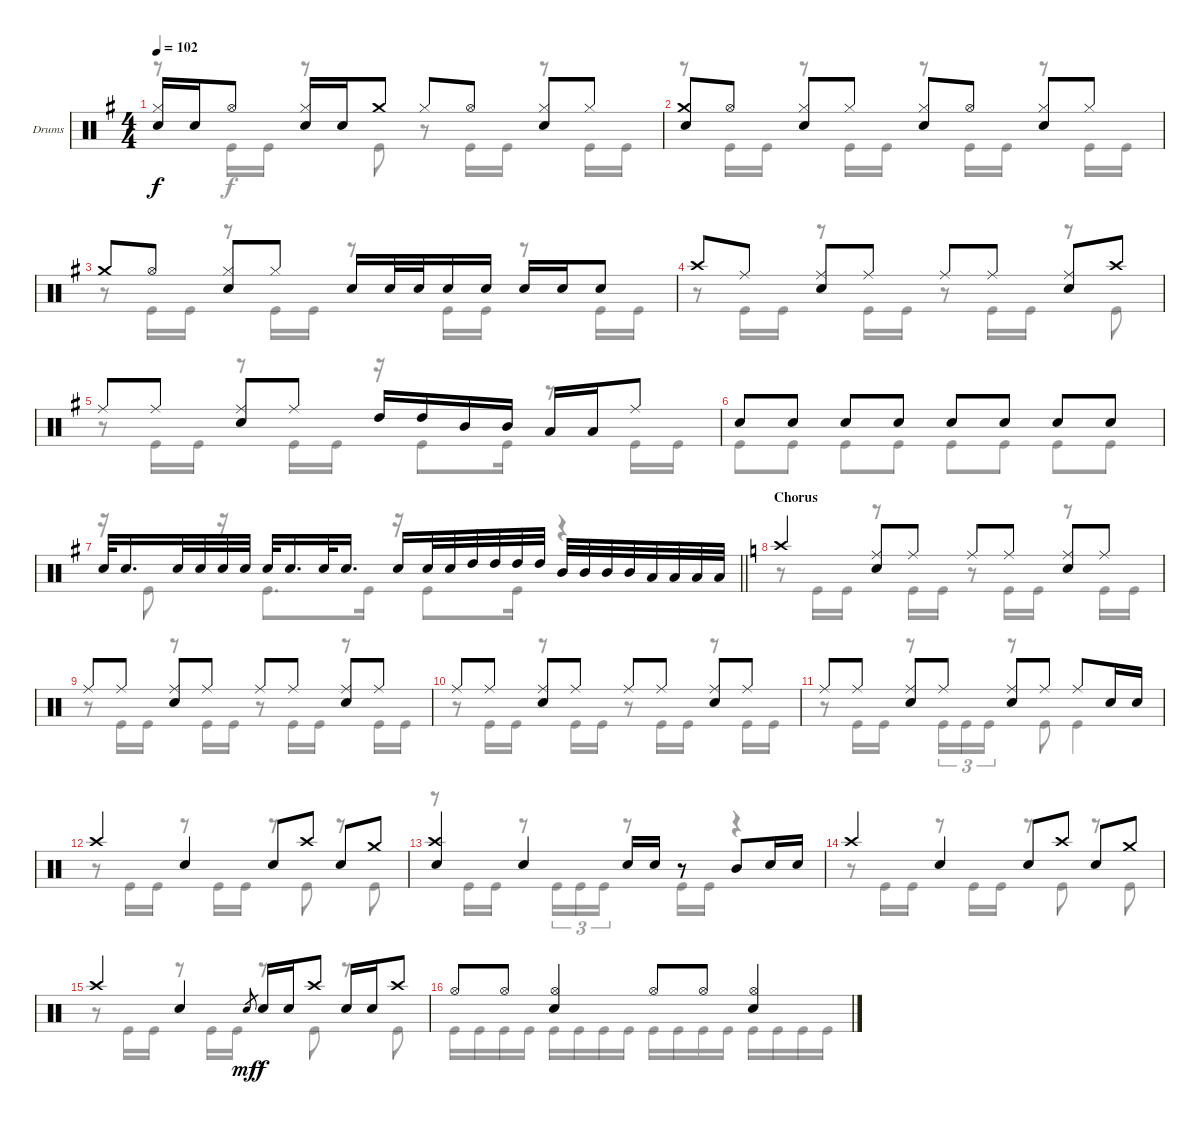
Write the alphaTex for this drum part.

\bracketExtendMode groupsimilarinstruments
\firstSystemTrackNameOrientation horizontal
\otherSystemsTrackNameOrientation horizontal
\track ("Drumkit" "Drums") {instrument percussion}
\staff {score}
\articulation defaults
\voice
\ts (4 4)
\tempo 102
\clef neutral
\ks g
("Hi-Hat (closed)" "Snare (hit) 2").16{dy f} "Snare (hit) 2".16 "Hi-Hat (open)".8 ("Hi-Hat (closed)" "Snare (hit) 2").16 "Snare (hit) 2".16 "Crash medium (hit)".8 "Hi-Hat (closed)".8 "Hi-Hat (open)".8 ("Hi-Hat (closed)" "Snare (hit) 2").8 "Hi-Hat (closed)".8 |
("Crash medium (hit)" "Snare (hit) 2").8 "Hi-Hat (open)".8 ("Hi-Hat (closed)" "Snare (hit) 2").8 "Hi-Hat (closed)".8 ("Hi-Hat (closed)" "Snare (hit) 2").8 "Hi-Hat (open)".8 ("Hi-Hat (closed)" "Snare (hit) 2").8 "Hi-Hat (closed)".8 |
"Crash medium (hit)".8 "Hi-Hat (open)".8 ("Hi-Hat (closed)" "Snare (hit) 2").8 "Hi-Hat (closed)".8 "Snare (hit) 2".16 "Snare (hit) 2".32 "Snare (hit) 2".32 "Snare (hit) 2".16 "Snare (hit) 2".16 "Snare (hit) 2".16 "Snare (hit) 2".16 "Snare (hit) 2".8 |
"Crash high (hit)".8 "Ride (middle)".8 ("Ride (middle)" "Snare (hit) 2").8 "Ride (middle)".8 "Ride (middle)".8 "Ride (middle)".8 ("Ride (middle)" "Snare (hit) 2").8 "Crash high (hit)".8 |
"Ride (middle)".8 "Ride (middle)".8 ("Ride (middle)" "Snare (hit) 2").8 "Ride (middle)".8 "High Tom (hit)".16 "High Tom (hit)".16 "Mid Tom (hit)".16 "Mid Tom (hit)".16 "Low Tom (hit)".16 "Low Tom (hit)".16 "Ride (middle)".8 |
"Snare (hit) 2".8 "Snare (hit) 2".8 "Snare (hit) 2".8 "Snare (hit) 2".8 "Snare (hit) 2".8 "Snare (hit) 2".8 "Snare (hit) 2".8 "Snare (hit) 2".8 |
\barLineRight lightlight "Snare (hit) 2".32 "Snare (hit) 2".16{d} "Snare (hit) 2".32 "Snare (hit) 2".32 "Snare (hit) 2".32 "Snare (hit) 2".32 "Snare (hit) 2".32 "Snare (hit) 2".16{d} "Snare (hit) 2".32 "Snare (hit) 2".16{d} "Snare (hit) 2".16 "Snare (hit) 2".32 "Snare (hit) 2".32 "High Tom (hit)".32 "High Tom (hit)".32 "High Tom (hit)".32 "High Tom (hit)".32 "Mid Tom (hit)".32 "Mid Tom (hit)".32 "Mid Tom (hit)".32 "Mid Tom (hit)".32 "Low Tom (hit)".32 "Low Tom (hit)".32 "Low Tom (hit)".32 "Low Tom (hit)".32
|
\section ("" "Chorus")
\ks c "Crash high (hit)".4
("Ride (middle)" "Snare (hit) 2").8 "Ride (middle)".8 "Ride (middle)".8 "Ride (middle)".8 ("Ride (middle)" "Snare (hit) 2").8 "Ride (middle)".8 |
"Ride (middle)".8 "Ride (middle)".8 ("Ride (middle)" "Snare (hit) 2").8 "Ride (middle)".8 "Ride (middle)".8 "Ride (middle)".8 ("Ride (middle)" "Snare (hit) 2").8 "Ride (middle)".8 |
"Ride (middle)".8 "Ride (middle)".8 ("Ride (middle)" "Snare (hit) 2").8 "Ride (middle)".8 "Ride (middle)".8 "Ride (middle)".8 ("Ride (middle)" "Snare (hit) 2").8 "Ride (middle)".8 |
"Ride (middle)".8 "Ride (middle)".8 ("Ride (middle)" "Snare (hit) 2").8 "Ride (middle)".8 ("Ride (middle)" "Snare (hit) 2").8 "Ride (middle)".8 "Ride (middle)".8 "Snare (hit) 2".16 "Snare (hit) 2".16 |
"Crash high (hit)".4 "Snare (hit) 2".4 "Snare (hit) 2".8 "Crash high (hit)".8 "Snare (hit) 2".8 "Crash medium (hit)".8 |
("Crash high (hit)" "Snare (hit) 2").4 "Snare (hit) 2".4 "Snare (hit) 2".16 "Snare (hit) 2".16 r.8 "Mid Tom (hit)".8 "Snare (hit) 2".16 "Snare (hit) 2".16 |
"Crash high (hit)".4 "Snare (hit) 2".4 "Snare (hit) 2".8 "Crash high (hit)".8 "Snare (hit) 2".8 "Crash medium (hit)".8 |
"Crash high (hit)".4 "Snare (hit) 2".4 "Snare (hit) 2".8{gr dy mf} "Snare (hit) 2".16{dy f} "Snare (hit) 2".16 "Crash high (hit)".8 "Snare (hit) 2".16 "Snare (hit) 2".16 "Crash high (hit)".8 |
"Hi-Hat (open)".8 "Hi-Hat (open)".8 ("Hi-Hat (open)" "Snare (hit) 2").4 "Hi-Hat (open)".8 "Hi-Hat (open)".8 ("Hi-Hat (open)" "Snare (hit) 2").4
\voice
\clef neutral
\ottava regular
\simile none
\ks g
r.8{dy f} "Kick (hit)".16 "Kick (hit)".16 r.8 "Kick (hit)".8 r.8 "Kick (hit)".16 "Kick (hit)".16 r.8 "Kick (hit)".16 "Kick (hit)".16 |
r.8 "Kick (hit)".16 "Kick (hit)".16 r.8 "Kick (hit)".16 "Kick (hit)".16 r.8 "Kick (hit)".16 "Kick (hit)".16 r.8 "Kick (hit)".16 "Kick (hit)".16 |
r.8 "Kick (hit)".16 "Kick (hit)".16 r.8 "Kick (hit)".16 "Kick (hit)".16 r.8 "Kick (hit)".16 "Kick (hit)".16 r.8 "Kick (hit)".16 "Kick (hit)".16 |
r.8 "Kick (hit)".16 "Kick (hit)".16 r.8 "Kick (hit)".16 "Kick (hit)".16 r.8 "Kick (hit)".16 "Kick (hit)".16 r.8 "Kick (hit)".8 |
r.8 "Kick (hit)".16 "Kick (hit)".16 r.8 "Kick (hit)".16 "Kick (hit)".16 r.16 "Kick (hit)".8 "Kick (hit)".16 r.8 "Kick (hit)".16 "Kick (hit)".16 |
"Kick (hit)".8 "Kick (hit)".8 "Kick (hit)".8 "Kick (hit)".8 "Kick (hit)".8 "Kick (hit)".8 "Kick (hit)".8 "Kick (hit)".8 |
\barLineRight lightlight
r.16 "Kick (hit)".8 r.16 "Kick (hit)".8{d} "Kick (hit)".16 r.16 "Kick (hit)".8 "Kick (hit)".16 r.4 |
\ks c
r.8 "Kick (hit)".16 "Kick (hit)".16 r.8 "Kick (hit)".16 "Kick (hit)".16 r.8 "Kick (hit)".16 "Kick (hit)".16 r.8 "Kick (hit)".16 "Kick (hit)".16 |
r.8 "Kick (hit)".16 "Kick (hit)".16 r.8 "Kick (hit)".16 "Kick (hit)".16 r.8 "Kick (hit)".16 "Kick (hit)".16 r.8 "Kick (hit)".16 "Kick (hit)".16 |
r.8 "Kick (hit)".16 "Kick (hit)".16 r.8 "Kick (hit)".16 "Kick (hit)".16 r.8 "Kick (hit)".16 "Kick (hit)".16 r.8 "Kick (hit)".16 "Kick (hit)".16 |
r.8 "Kick (hit)".16 "Kick (hit)".16 r.8 "Kick (hit)".16{tu (3 2)} "Kick (hit)".16{tu (3 2)} "Kick (hit)".16{tu (3 2)} r.8 "Kick (hit)".8 "Kick (hit)".4 |
r.8 "Kick (hit)".16 "Kick (hit)".16 r.8 "Kick (hit)".16 "Kick (hit)".16 r.8 "Kick (hit)".8 r.8 "Kick (hit)".8 |
r.8 "Kick (hit)".16 "Kick (hit)".16 r.8 "Kick (hit)".16{tu (3 2)} "Kick (hit)".16{tu (3 2)} "Kick (hit)".16{tu (3 2)} r.8 "Kick (hit)".16 "Kick (hit)".16 r.4 |
r.8 "Kick (hit)".16 "Kick (hit)".16 r.8 "Kick (hit)".16 "Kick (hit)".16 r.8 "Kick (hit)".8 r.8 "Kick (hit)".8 |
r.8 "Kick (hit)".16 "Kick (hit)".16 r.8 "Kick (hit)".16 "Kick (hit)".16 r.8 "Kick (hit)".8 r.8 "Kick (hit)".8 |
"Kick (hit)".16 "Kick (hit)".16 "Kick (hit)".16 "Kick (hit)".16 "Kick (hit)".16 "Kick (hit)".16 "Kick (hit)".16 "Kick (hit)".16 "Kick (hit)".16 "Kick (hit)".16 "Kick (hit)".16 "Kick (hit)".16 "Kick (hit)".16 "Kick (hit)".16 "Kick (hit)".16 "Kick (hit)".16
